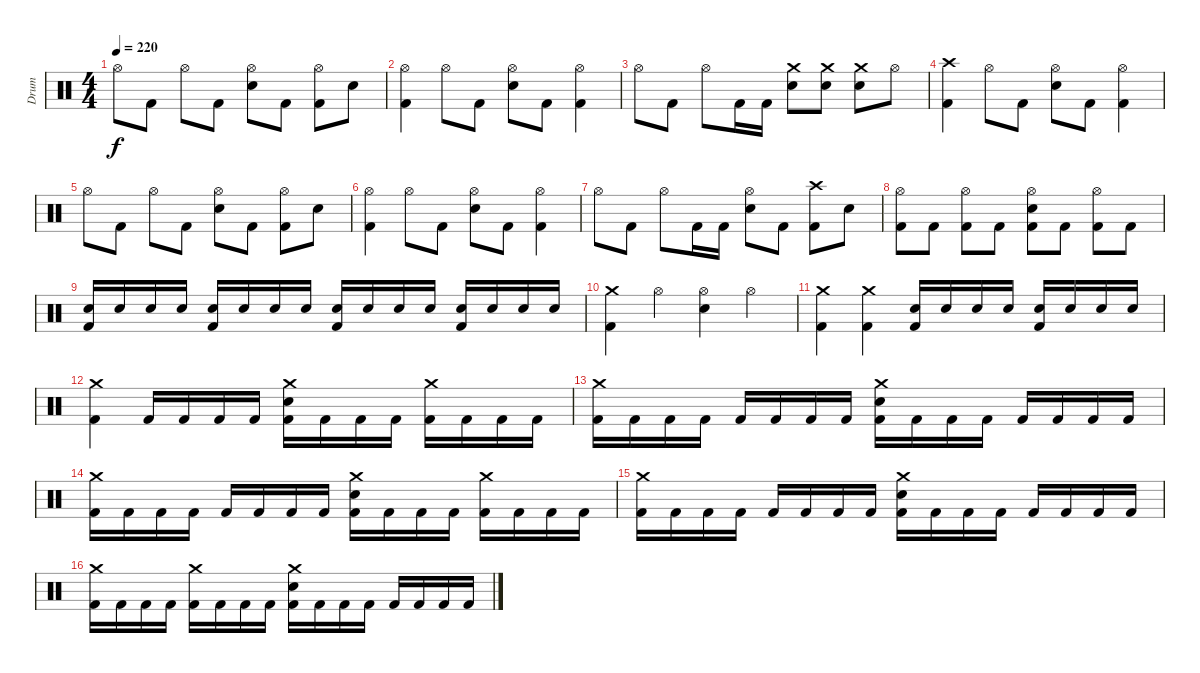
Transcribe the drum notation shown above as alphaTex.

\track ("Drum" "Drum") {instrument percussion}
\staff {score}
\articulation defaults
\ts (4 4)
\tempo 220
\clef neutral
\ks c "Hi-Hat (open)".8{dy f} "Kick (hit) 2".8 "Hi-Hat (open)".8 "Kick (hit) 2".8
("Hi-Hat (open)" "Electric Snare (hit)").8 "Kick (hit) 2".8 ("Hi-Hat (open)" "Kick (hit) 2").8 "Electric Snare (hit)".8 |
("Hi-Hat (open)" "Kick (hit) 2").4 "Hi-Hat (open)".8 "Kick (hit) 2".8 ("Hi-Hat (open)" "Electric Snare (hit)").8 "Kick (hit) 2".8 ("Hi-Hat (open)" "Kick (hit) 2").4 |
"Hi-Hat (open)".8 "Kick (hit) 2".8 "Hi-Hat (open)".8 "Kick (hit) 2".16 "Kick (hit) 2".16 ("Crash medium (hit)" "Electric Snare (hit)").8 ("Crash medium (hit)" "Electric Snare (hit)").8 ("Crash medium (hit)" "Electric Snare (hit)").8 "Hi-Hat (open)".8 |
("Crash high (hit)" "Kick (hit) 2").4 "Hi-Hat (open)".8 "Kick (hit) 2".8 ("Hi-Hat (open)" "Electric Snare (hit)").8 "Kick (hit) 2".8 ("Hi-Hat (open)" "Kick (hit) 2").4 |
"Hi-Hat (open)".8 "Kick (hit) 2".8 "Hi-Hat (open)".8 "Kick (hit) 2".8 ("Hi-Hat (open)" "Electric Snare (hit)").8 "Kick (hit) 2".8 ("Hi-Hat (open)" "Kick (hit) 2").8 "Electric Snare (hit)".8 |
("Hi-Hat (open)" "Kick (hit) 2").4 "Hi-Hat (open)".8 "Kick (hit) 2".8 ("Hi-Hat (open)" "Electric Snare (hit)").8 "Kick (hit) 2".8 ("Hi-Hat (open)" "Kick (hit) 2").4 |
"Hi-Hat (open)".8 "Kick (hit) 2".8 "Hi-Hat (open)".8 "Kick (hit) 2".16 "Kick (hit) 2".16 ("Hi-Hat (open)" "Electric Snare (hit)").8 "Kick (hit) 2".8 ("Crash high (hit)" "Kick (hit) 2").8 "Electric Snare (hit)".8 |
("Hi-Hat (open)" "Kick (hit) 2").8 "Kick (hit) 2".8 ("Hi-Hat (open)" "Kick (hit) 2").8 "Kick (hit) 2".8 ("Hi-Hat (open)" "Electric Snare (hit)" "Kick (hit) 2").8 "Kick (hit) 2".8 ("Hi-Hat (open)" "Kick (hit) 2").8 "Kick (hit) 2".8 |
("Electric Snare (hit)" "Kick (hit) 2").16 "Electric Snare (hit)".16 "Electric Snare (hit)".16 "Electric Snare (hit)".16 ("Electric Snare (hit)" "Kick (hit) 2").16 "Electric Snare (hit)".16 "Electric Snare (hit)".16 "Electric Snare (hit)".16 ("Electric Snare (hit)" "Kick (hit) 2").16 "Electric Snare (hit)".16 "Electric Snare (hit)".16 "Electric Snare (hit)".16 ("Electric Snare (hit)" "Kick (hit) 2").16 "Electric Snare (hit)".16 "Electric Snare (hit)".16 "Electric Snare (hit)".16 |
("Crash medium (hit)" "Kick (hit) 2").4 "Hi-Hat (open)".4 ("Hi-Hat (open)" "Electric Snare (hit)").4 "Hi-Hat (open)".4 |
("Crash medium (hit)" "Kick (hit) 2").4 ("Crash medium (hit)" "Kick (hit) 2").4 ("Electric Snare (hit)" "Kick (hit) 2").16 "Electric Snare (hit)".16 "Electric Snare (hit)".16 "Electric Snare (hit)".16 ("Electric Snare (hit)" "Kick (hit) 2").16 "Electric Snare (hit)".16 "Electric Snare (hit)".16 "Electric Snare (hit)".16 |
("Crash medium (hit)" "Kick (hit) 2").4 "Kick (hit) 2".16 "Kick (hit) 2".16 "Kick (hit) 2".16 "Kick (hit) 2".16 ("Crash medium (hit)" "Electric Snare (hit)" "Kick (hit) 2").16 "Kick (hit) 2".16 "Kick (hit) 2".16 "Kick (hit) 2".16 ("Crash medium (hit)" "Kick (hit) 2").16 "Kick (hit) 2".16 "Kick (hit) 2".16 "Kick (hit) 2".16 |
("Crash medium (hit)" "Kick (hit) 2").16 "Kick (hit) 2".16 "Kick (hit) 2".16 "Kick (hit) 2".16 "Kick (hit) 2".16 "Kick (hit) 2".16 "Kick (hit) 2".16 "Kick (hit) 2".16 ("Crash medium (hit)" "Electric Snare (hit)" "Kick (hit) 2").16 "Kick (hit) 2".16 "Kick (hit) 2".16 "Kick (hit) 2".16 "Kick (hit) 2".16 "Kick (hit) 2".16 "Kick (hit) 2".16 "Kick (hit) 2".16 |
("Crash medium (hit)" "Kick (hit) 2").16 "Kick (hit) 2".16 "Kick (hit) 2".16 "Kick (hit) 2".16 "Kick (hit) 2".16 "Kick (hit) 2".16 "Kick (hit) 2".16 "Kick (hit) 2".16 ("Crash medium (hit)" "Electric Snare (hit)" "Kick (hit) 2").16 "Kick (hit) 2".16 "Kick (hit) 2".16 "Kick (hit) 2".16 ("Crash medium (hit)" "Kick (hit) 2").16 "Kick (hit) 2".16 "Kick (hit) 2".16 "Kick (hit) 2".16 |
("Crash medium (hit)" "Kick (hit) 2").16 "Kick (hit) 2".16 "Kick (hit) 2".16 "Kick (hit) 2".16 "Kick (hit) 2".16 "Kick (hit) 2".16 "Kick (hit) 2".16 "Kick (hit) 2".16 ("Crash medium (hit)" "Electric Snare (hit)" "Kick (hit) 2").16 "Kick (hit) 2".16 "Kick (hit) 2".16 "Kick (hit) 2".16 "Kick (hit) 2".16 "Kick (hit) 2".16 "Kick (hit) 2".16 "Kick (hit) 2".16 |
("Crash medium (hit)" "Kick (hit) 2").16 "Kick (hit) 2".16 "Kick (hit) 2".16 "Kick (hit) 2".16 ("Crash medium (hit)" "Kick (hit) 2").16 "Kick (hit) 2".16 "Kick (hit) 2".16 "Kick (hit) 2".16 ("Crash medium (hit)" "Electric Snare (hit)" "Kick (hit) 2").16 "Kick (hit) 2".16 "Kick (hit) 2".16 "Kick (hit) 2".16 "Kick (hit) 2".16 "Kick (hit) 2".16 "Kick (hit) 2".16 "Kick (hit) 2".16
